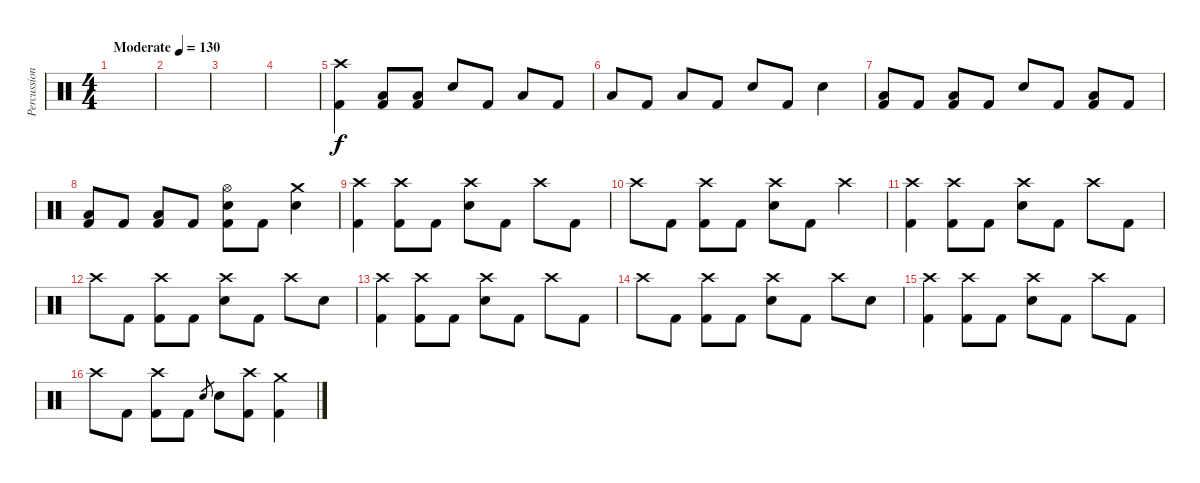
\track ("Percussion" "Percussion") {instrument percussion}
\staff {score}
\articulation defaults
\ts (4 4)
\tempo (130 "Moderate")
\clef neutral
\ks c
|
|
|
|
("Crash high (hit)" "Kick (hit) 2").4 ("Low Floor Tom (hit)" "Kick (hit) 2").8 ("Low Floor Tom (hit)" "Kick (hit) 2").8 "Electric Snare (hit)".8 "Kick (hit) 2".8 "Low Tom (hit)".8 "Kick (hit) 2".8 |
"Low Floor Tom (hit)".8 "Kick (hit) 2".8 "Low Floor Tom (hit)".8 "Kick (hit) 2".8 "Electric Snare (hit)".8 "Kick (hit) 2".8 "Electric Snare (hit)".4 |
("Low Floor Tom (hit)" "Kick (hit) 2").8 "Kick (hit) 2".8 ("Low Floor Tom (hit)" "Kick (hit) 2").8 "Kick (hit) 2".8 "Electric Snare (hit)".8 "Kick (hit) 2".8 ("Low Tom (hit)" "Kick (hit) 2").8 "Kick (hit) 2".8 |
("Low Floor Tom (hit)" "Kick (hit) 2").8 "Kick (hit) 2".8 ("Low Floor Tom (hit)" "Kick (hit) 2").8 "Kick (hit) 2".8 ("Hi-Hat (open)" "Electric Snare (hit)" "Kick (hit) 2").8 "Kick (hit) 2".8 ("Crash medium (hit)" "Electric Snare (hit)").4 |
("Crash high (hit)" "Kick (hit) 2").4 ("Crash high (hit)" "Kick (hit) 2").8 "Kick (hit) 2".8 ("Crash high (hit)" "Electric Snare (hit)").8 "Kick (hit) 2".8 "Crash high (hit)".8 "Kick (hit) 2".8 |
"Crash high (hit)".8 "Kick (hit) 2".8 ("Crash high (hit)" "Kick (hit) 2").8 "Kick (hit) 2".8 ("Crash high (hit)" "Electric Snare (hit)").8 "Kick (hit) 2".8 "Crash high (hit)".4 |
("Crash high (hit)" "Kick (hit) 2").4 ("Crash high (hit)" "Kick (hit) 2").8 "Kick (hit) 2".8 ("Crash high (hit)" "Electric Snare (hit)").8 "Kick (hit) 2".8 "Crash high (hit)".8 "Kick (hit) 2".8 |
"Crash high (hit)".8 "Kick (hit) 2".8 ("Crash high (hit)" "Kick (hit) 2").8 "Kick (hit) 2".8 ("Crash high (hit)" "Electric Snare (hit)").8 "Kick (hit) 2".8 "Crash high (hit)".8 "Electric Snare (hit)".8 |
("Crash high (hit)" "Kick (hit) 2").4 ("Crash high (hit)" "Kick (hit) 2").8 "Kick (hit) 2".8 ("Crash high (hit)" "Electric Snare (hit)").8 "Kick (hit) 2".8 "Crash high (hit)".8 "Kick (hit) 2".8 |
"Crash high (hit)".8 "Kick (hit) 2".8 ("Crash high (hit)" "Kick (hit) 2").8 "Kick (hit) 2".8 ("Crash high (hit)" "Electric Snare (hit)").8 "Kick (hit) 2".8 "Crash high (hit)".8 "Electric Snare (hit)".8 |
("Crash high (hit)" "Kick (hit) 2").4 ("Crash high (hit)" "Kick (hit) 2").8 "Kick (hit) 2".8 ("Crash high (hit)" "Electric Snare (hit)").8 "Kick (hit) 2".8 "Crash high (hit)".8 "Kick (hit) 2".8 |
"Crash high (hit)".8 "Kick (hit) 2".8 ("Crash high (hit)" "Kick (hit) 2").8 "Kick (hit) 2".8 "Electric Snare (hit)".8{gr} "Electric Snare (hit)".8 ("Crash high (hit)" "Kick (hit) 2").8 ("Crash medium (hit)" "Kick (hit) 2").4
